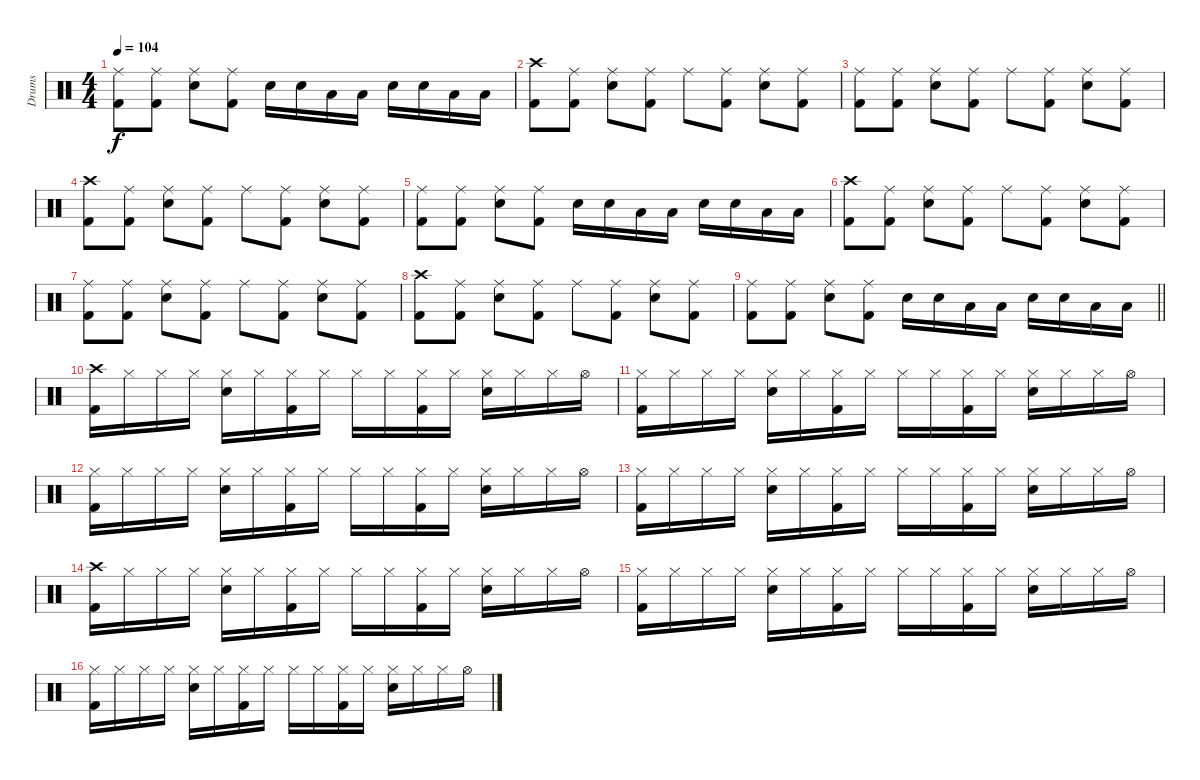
\track ("Drums" "Drums") {instrument percussion}
\staff {score}
\articulation defaults
\ts (4 4)
\tempo 104
\clef neutral
\ks c
("Ride (middle)" "Kick (hit) 2").8{dy f} ("Ride (middle)" "Kick (hit) 2").8 ("Ride (middle)" "Snare (hit) 2").8 ("Ride (middle)" "Kick (hit) 2").8 "Snare (hit) 2".16 "Snare (hit) 2".16 "Low Tom (hit)".16 "Low Tom (hit)".16 "Snare (hit) 2".16 "Snare (hit) 2".16 "Low Tom (hit)".16 "Low Tom (hit)".16 |
("Crash high (hit)" "Kick (hit) 2").8 ("Ride (middle)" "Kick (hit) 2").8 ("Ride (middle)" "Snare (hit) 2").8 ("Ride (middle)" "Kick (hit) 2").8 "Ride (middle)".8 ("Ride (middle)" "Kick (hit) 2").8 ("Ride (middle)" "Snare (hit) 2").8 ("Ride (middle)" "Kick (hit) 2").8 |
("Ride (middle)" "Kick (hit) 2").8 ("Ride (middle)" "Kick (hit) 2").8 ("Ride (middle)" "Snare (hit) 2").8 ("Ride (middle)" "Kick (hit) 2").8 "Ride (middle)".8 ("Ride (middle)" "Kick (hit) 2").8 ("Ride (middle)" "Snare (hit) 2").8 ("Ride (middle)" "Kick (hit) 2").8 |
("Crash high (hit)" "Kick (hit) 2").8 ("Ride (middle)" "Kick (hit) 2").8 ("Ride (middle)" "Snare (hit) 2").8 ("Ride (middle)" "Kick (hit) 2").8 "Ride (middle)".8 ("Ride (middle)" "Kick (hit) 2").8 ("Ride (middle)" "Snare (hit) 2").8 ("Ride (middle)" "Kick (hit) 2").8 |
("Ride (middle)" "Kick (hit) 2").8 ("Ride (middle)" "Kick (hit) 2").8 ("Ride (middle)" "Snare (hit) 2").8 ("Ride (middle)" "Kick (hit) 2").8 "Snare (hit) 2".16 "Snare (hit) 2".16 "Low Tom (hit)".16 "Low Tom (hit)".16 "Snare (hit) 2".16 "Snare (hit) 2".16 "Low Tom (hit)".16 "Low Tom (hit)".16 |
("Crash high (hit)" "Kick (hit) 2").8 ("Ride (middle)" "Kick (hit) 2").8 ("Ride (middle)" "Snare (hit) 2").8 ("Ride (middle)" "Kick (hit) 2").8 "Ride (middle)".8 ("Ride (middle)" "Kick (hit) 2").8 ("Ride (middle)" "Snare (hit) 2").8 ("Ride (middle)" "Kick (hit) 2").8 |
("Ride (middle)" "Kick (hit) 2").8 ("Ride (middle)" "Kick (hit) 2").8 ("Ride (middle)" "Snare (hit) 2").8 ("Ride (middle)" "Kick (hit) 2").8 "Ride (middle)".8 ("Ride (middle)" "Kick (hit) 2").8 ("Ride (middle)" "Snare (hit) 2").8 ("Ride (middle)" "Kick (hit) 2").8 |
("Crash high (hit)" "Kick (hit) 2").8 ("Ride (middle)" "Kick (hit) 2").8 ("Ride (middle)" "Snare (hit) 2").8 ("Ride (middle)" "Kick (hit) 2").8 "Ride (middle)".8 ("Ride (middle)" "Kick (hit) 2").8 ("Ride (middle)" "Snare (hit) 2").8 ("Ride (middle)" "Kick (hit) 2").8 |
\barLineRight lightlight
("Ride (middle)" "Kick (hit) 2").8 ("Ride (middle)" "Kick (hit) 2").8 ("Ride (middle)" "Snare (hit) 2").8 ("Ride (middle)" "Kick (hit) 2").8 "Snare (hit) 2".16 "Snare (hit) 2".16 "Low Tom (hit)".16 "Low Tom (hit)".16 "Snare (hit) 2".16 "Snare (hit) 2".16 "Low Tom (hit)".16 "Low Tom (hit)".16 |
("Crash high (hit)" "Kick (hit) 2").16 "Hi-Hat (closed)".16 "Hi-Hat (closed)".16 "Hi-Hat (closed)".16 ("Hi-Hat (closed)" "Snare (hit) 2").16 "Hi-Hat (closed)".16 ("Hi-Hat (closed)" "Kick (hit) 2").16 "Hi-Hat (closed)".16 "Hi-Hat (closed)".16 "Hi-Hat (closed)".16 ("Hi-Hat (closed)" "Kick (hit) 2").16 "Hi-Hat (closed)".16 ("Hi-Hat (closed)" "Snare (hit) 2").16 "Hi-Hat (closed)".16 "Hi-Hat (closed)".16 "Hi-Hat (open)".16 |
("Hi-Hat (closed)" "Kick (hit) 2").16 "Hi-Hat (closed)".16 "Hi-Hat (closed)".16 "Hi-Hat (closed)".16 ("Hi-Hat (closed)" "Snare (hit) 2").16 "Hi-Hat (closed)".16 ("Hi-Hat (closed)" "Kick (hit) 2").16 "Hi-Hat (closed)".16 "Hi-Hat (closed)".16 "Hi-Hat (closed)".16 ("Hi-Hat (closed)" "Kick (hit) 2").16 "Hi-Hat (closed)".16 ("Hi-Hat (closed)" "Snare (hit) 2").16 "Hi-Hat (closed)".16 "Hi-Hat (closed)".16 "Hi-Hat (open)".16 |
("Hi-Hat (closed)" "Kick (hit) 2").16 "Hi-Hat (closed)".16 "Hi-Hat (closed)".16 "Hi-Hat (closed)".16 ("Hi-Hat (closed)" "Snare (hit) 2").16 "Hi-Hat (closed)".16 ("Hi-Hat (closed)" "Kick (hit) 2").16 "Hi-Hat (closed)".16 "Hi-Hat (closed)".16 "Hi-Hat (closed)".16 ("Hi-Hat (closed)" "Kick (hit) 2").16 "Hi-Hat (closed)".16 ("Hi-Hat (closed)" "Snare (hit) 2").16 "Hi-Hat (closed)".16 "Hi-Hat (closed)".16 "Hi-Hat (open)".16 |
("Hi-Hat (closed)" "Kick (hit) 2").16 "Hi-Hat (closed)".16 "Hi-Hat (closed)".16 "Hi-Hat (closed)".16 ("Hi-Hat (closed)" "Snare (hit) 2").16 "Hi-Hat (closed)".16 ("Hi-Hat (closed)" "Kick (hit) 2").16 "Hi-Hat (closed)".16 "Hi-Hat (closed)".16 "Hi-Hat (closed)".16 ("Hi-Hat (closed)" "Kick (hit) 2").16 "Hi-Hat (closed)".16 ("Hi-Hat (closed)" "Snare (hit) 2").16 "Hi-Hat (closed)".16 "Hi-Hat (closed)".16 "Hi-Hat (open)".16 |
("Crash high (hit)" "Kick (hit) 2").16 "Hi-Hat (closed)".16 "Hi-Hat (closed)".16 "Hi-Hat (closed)".16 ("Hi-Hat (closed)" "Snare (hit) 2").16 "Hi-Hat (closed)".16 ("Hi-Hat (closed)" "Kick (hit) 2").16 "Hi-Hat (closed)".16 "Hi-Hat (closed)".16 "Hi-Hat (closed)".16 ("Hi-Hat (closed)" "Kick (hit) 2").16 "Hi-Hat (closed)".16 ("Hi-Hat (closed)" "Snare (hit) 2").16 "Hi-Hat (closed)".16 "Hi-Hat (closed)".16 "Hi-Hat (open)".16 |
("Hi-Hat (closed)" "Kick (hit) 2").16 "Hi-Hat (closed)".16 "Hi-Hat (closed)".16 "Hi-Hat (closed)".16 ("Hi-Hat (closed)" "Snare (hit) 2").16 "Hi-Hat (closed)".16 ("Hi-Hat (closed)" "Kick (hit) 2").16 "Hi-Hat (closed)".16 "Hi-Hat (closed)".16 "Hi-Hat (closed)".16 ("Hi-Hat (closed)" "Kick (hit) 2").16 "Hi-Hat (closed)".16 ("Hi-Hat (closed)" "Snare (hit) 2").16 "Hi-Hat (closed)".16 "Hi-Hat (closed)".16 "Hi-Hat (open)".16 |
("Hi-Hat (closed)" "Kick (hit) 2").16 "Hi-Hat (closed)".16 "Hi-Hat (closed)".16 "Hi-Hat (closed)".16 ("Hi-Hat (closed)" "Snare (hit) 2").16 "Hi-Hat (closed)".16 ("Hi-Hat (closed)" "Kick (hit) 2").16 "Hi-Hat (closed)".16 "Hi-Hat (closed)".16 "Hi-Hat (closed)".16 ("Hi-Hat (closed)" "Kick (hit) 2").16 "Hi-Hat (closed)".16 ("Hi-Hat (closed)" "Snare (hit) 2").16 "Hi-Hat (closed)".16 "Hi-Hat (closed)".16 "Hi-Hat (open)".16
